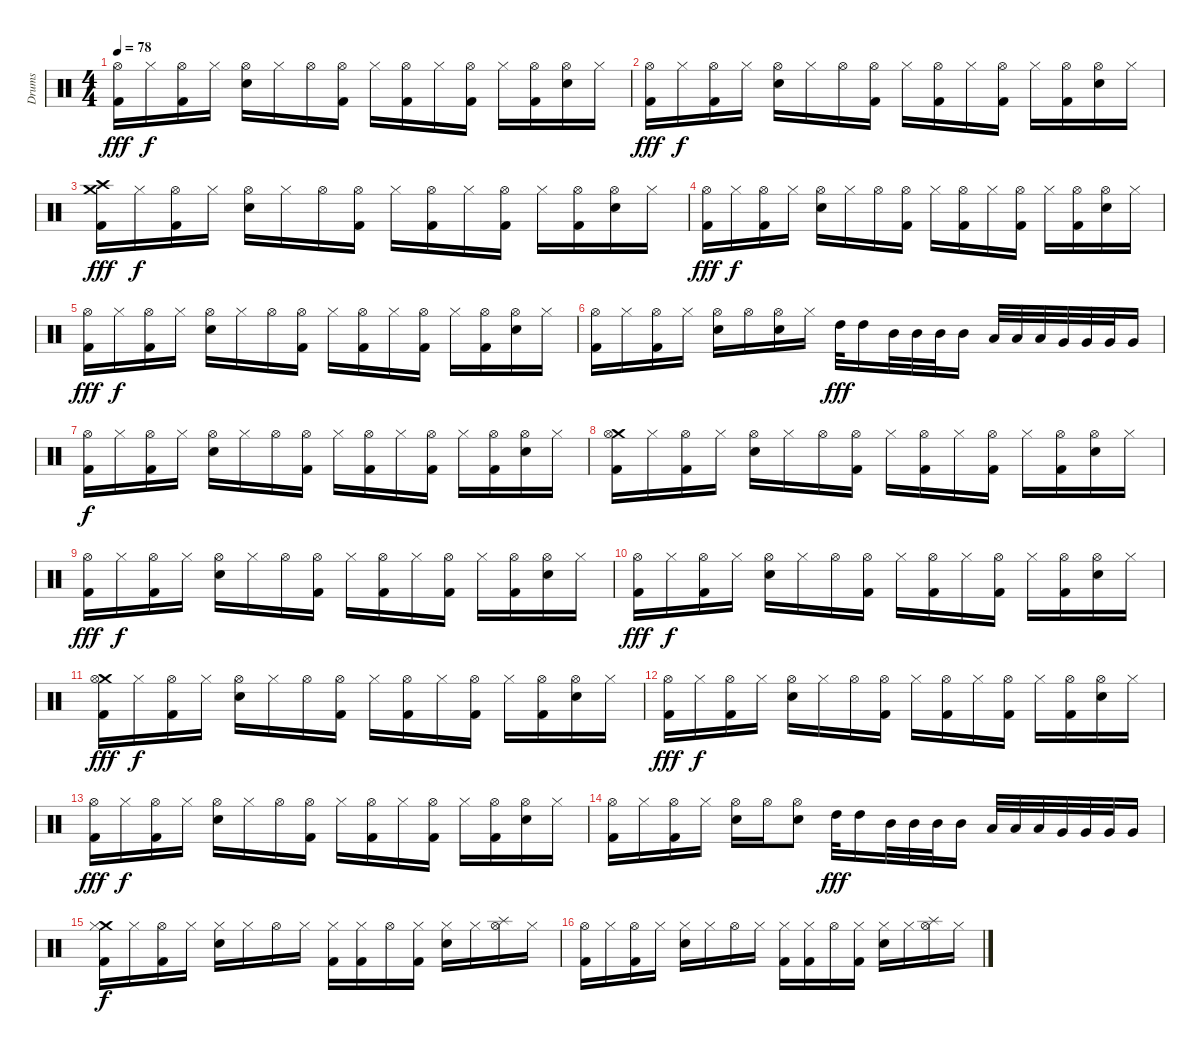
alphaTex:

\track ("Drums" "Drums") {instrument percussion}
\staff {score}
\articulation defaults
\ts (4 4)
\tempo 78
\clef neutral
\ks c
("Hi-Hat (open)" "Kick (hit) 2").16{dy fff} "Hi-Hat (closed)".16{dy f} ("Hi-Hat (open)" "Kick (hit) 2").16 "Hi-Hat (closed)".16 ("Hi-Hat (open)" "Snare (hit) 2").16 "Hi-Hat (closed)".16 "Hi-Hat (open)".16 ("Hi-Hat (open)" "Kick (hit) 2").16 "Hi-Hat (closed)".16 ("Hi-Hat (open)" "Kick (hit) 2").16 "Hi-Hat (closed)".16 ("Hi-Hat (open)" "Kick (hit) 2").16 "Hi-Hat (closed)".16 ("Hi-Hat (open)" "Kick (hit) 2").16 ("Hi-Hat (open)" "Snare (hit) 2").16 "Hi-Hat (closed)".16 |
("Hi-Hat (open)" "Kick (hit) 2").16{dy fff} "Hi-Hat (closed)".16{dy f} ("Hi-Hat (open)" "Kick (hit) 2").16 "Hi-Hat (closed)".16 ("Hi-Hat (open)" "Snare (hit) 2").16 "Hi-Hat (closed)".16 "Hi-Hat (open)".16 ("Hi-Hat (open)" "Kick (hit) 2").16 "Hi-Hat (closed)".16 ("Hi-Hat (open)" "Kick (hit) 2").16 "Hi-Hat (closed)".16 ("Hi-Hat (open)" "Kick (hit) 2").16 "Hi-Hat (closed)".16 ("Hi-Hat (open)" "Kick (hit) 2").16 ("Hi-Hat (open)" "Snare (hit) 2").16 "Hi-Hat (closed)".16 |
("Crash medium (hit)" "Crash high (hit)" "Kick (hit) 2").16{dy fff} "Hi-Hat (closed)".16{dy f} ("Hi-Hat (open)" "Kick (hit) 2").16 "Hi-Hat (closed)".16 ("Hi-Hat (open)" "Snare (hit) 2").16 "Hi-Hat (closed)".16 "Hi-Hat (open)".16 ("Hi-Hat (open)" "Kick (hit) 2").16 "Hi-Hat (closed)".16 ("Hi-Hat (open)" "Kick (hit) 2").16 "Hi-Hat (closed)".16 ("Hi-Hat (open)" "Kick (hit) 2").16 "Hi-Hat (closed)".16 ("Hi-Hat (open)" "Kick (hit) 2").16 ("Hi-Hat (open)" "Snare (hit) 2").16 "Hi-Hat (closed)".16 |
("Hi-Hat (open)" "Kick (hit) 2").16{dy fff} "Hi-Hat (closed)".16{dy f} ("Hi-Hat (open)" "Kick (hit) 2").16 "Hi-Hat (closed)".16 ("Hi-Hat (open)" "Snare (hit) 2").16 "Hi-Hat (closed)".16 "Hi-Hat (open)".16 ("Hi-Hat (open)" "Kick (hit) 2").16 "Hi-Hat (closed)".16 ("Hi-Hat (open)" "Kick (hit) 2").16 "Hi-Hat (closed)".16 ("Hi-Hat (open)" "Kick (hit) 2").16 "Hi-Hat (closed)".16 ("Hi-Hat (open)" "Kick (hit) 2").16 ("Hi-Hat (open)" "Snare (hit) 2").16 "Hi-Hat (closed)".16 |
("Hi-Hat (open)" "Kick (hit) 2").16{dy fff} "Hi-Hat (closed)".16{dy f} ("Hi-Hat (open)" "Kick (hit) 2").16 "Hi-Hat (closed)".16 ("Hi-Hat (open)" "Snare (hit) 2").16 "Hi-Hat (closed)".16 "Hi-Hat (open)".16 ("Hi-Hat (open)" "Kick (hit) 2").16 "Hi-Hat (closed)".16 ("Hi-Hat (open)" "Kick (hit) 2").16 "Hi-Hat (closed)".16 ("Hi-Hat (open)" "Kick (hit) 2").16 "Hi-Hat (closed)".16 ("Hi-Hat (open)" "Kick (hit) 2").16 ("Hi-Hat (open)" "Snare (hit) 2").16 "Hi-Hat (closed)".16 |
("Hi-Hat (open)" "Kick (hit) 2").16 "Hi-Hat (closed)".16 ("Hi-Hat (open)" "Kick (hit) 2").16 "Hi-Hat (closed)".16 ("Hi-Hat (open)" "Snare (hit) 2").16 "Hi-Hat (open)".16 ("Hi-Hat (open)" "Snare (hit) 2").16 "Hi-Hat (closed)".16 "High Tom (hit)".32{dy fff} "High Tom (hit)".16 "Mid Tom (hit)".32 "Mid Tom (hit)".32 "Mid Tom (hit)".32 "Mid Tom (hit)".16 "Low Tom (hit)".32 "Low Tom (hit)".32 "Low Tom (hit)".32 "Very Low Tom (hit)".32 "Very Low Tom (hit)".32 "Very Low Tom (hit)".32 "Very Low Tom (hit)".16 |
("Hi-Hat (open)" "Kick (hit) 2").16{dy f} "Hi-Hat (closed)".16 ("Hi-Hat (open)" "Kick (hit) 2").16 "Hi-Hat (closed)".16 ("Hi-Hat (open)" "Snare (hit) 2").16 "Hi-Hat (closed)".16 "Hi-Hat (open)".16 ("Hi-Hat (open)" "Kick (hit) 2").16 "Hi-Hat (closed)".16 ("Hi-Hat (open)" "Kick (hit) 2").16 "Hi-Hat (closed)".16 ("Hi-Hat (open)" "Kick (hit) 2").16 "Hi-Hat (closed)".16 ("Hi-Hat (open)" "Kick (hit) 2").16 ("Hi-Hat (open)" "Snare (hit) 2").16 "Hi-Hat (closed)".16 |
("Crash medium (hit)" "Hi-Hat (open)" "Kick (hit) 2").16 "Hi-Hat (closed)".16 ("Hi-Hat (open)" "Kick (hit) 2").16 "Hi-Hat (closed)".16 ("Hi-Hat (open)" "Snare (hit) 2").16 "Hi-Hat (closed)".16 "Hi-Hat (open)".16 ("Hi-Hat (open)" "Kick (hit) 2").16 "Hi-Hat (closed)".16 ("Hi-Hat (open)" "Kick (hit) 2").16 "Hi-Hat (closed)".16 ("Hi-Hat (open)" "Kick (hit) 2").16 "Hi-Hat (closed)".16 ("Hi-Hat (open)" "Kick (hit) 2").16 ("Hi-Hat (open)" "Snare (hit) 2").16 "Hi-Hat (closed)".16 |
("Hi-Hat (open)" "Kick (hit) 2").16{dy fff} "Hi-Hat (closed)".16{dy f} ("Hi-Hat (open)" "Kick (hit) 2").16 "Hi-Hat (closed)".16 ("Hi-Hat (open)" "Snare (hit) 2").16 "Hi-Hat (closed)".16 "Hi-Hat (open)".16 ("Hi-Hat (open)" "Kick (hit) 2").16 "Hi-Hat (closed)".16 ("Hi-Hat (open)" "Kick (hit) 2").16 "Hi-Hat (closed)".16 ("Hi-Hat (open)" "Kick (hit) 2").16 "Hi-Hat (closed)".16 ("Hi-Hat (open)" "Kick (hit) 2").16 ("Hi-Hat (open)" "Snare (hit) 2").16 "Hi-Hat (closed)".16 |
("Hi-Hat (open)" "Kick (hit) 2").16{dy fff} "Hi-Hat (closed)".16{dy f} ("Hi-Hat (open)" "Kick (hit) 2").16 "Hi-Hat (closed)".16 ("Hi-Hat (open)" "Snare (hit) 2").16 "Hi-Hat (closed)".16 "Hi-Hat (open)".16 ("Hi-Hat (open)" "Kick (hit) 2").16 "Hi-Hat (closed)".16 ("Hi-Hat (open)" "Kick (hit) 2").16 "Hi-Hat (closed)".16 ("Hi-Hat (open)" "Kick (hit) 2").16 "Hi-Hat (closed)".16 ("Hi-Hat (open)" "Kick (hit) 2").16 ("Hi-Hat (open)" "Snare (hit) 2").16 "Hi-Hat (closed)".16 |
("Crash medium (hit)" "Hi-Hat (open)" "Kick (hit) 2").16{dy fff} "Hi-Hat (closed)".16{dy f} ("Hi-Hat (open)" "Kick (hit) 2").16 "Hi-Hat (closed)".16 ("Hi-Hat (open)" "Snare (hit) 2").16 "Hi-Hat (closed)".16 "Hi-Hat (open)".16 ("Hi-Hat (open)" "Kick (hit) 2").16 "Hi-Hat (closed)".16 ("Hi-Hat (open)" "Kick (hit) 2").16 "Hi-Hat (closed)".16 ("Hi-Hat (open)" "Kick (hit) 2").16 "Hi-Hat (closed)".16 ("Hi-Hat (open)" "Kick (hit) 2").16 ("Hi-Hat (open)" "Snare (hit) 2").16 "Hi-Hat (closed)".16 |
("Hi-Hat (open)" "Kick (hit) 2").16{dy fff} "Hi-Hat (closed)".16{dy f} ("Hi-Hat (open)" "Kick (hit) 2").16 "Hi-Hat (closed)".16 ("Hi-Hat (open)" "Snare (hit) 2").16 "Hi-Hat (closed)".16 "Hi-Hat (open)".16 ("Hi-Hat (open)" "Kick (hit) 2").16 "Hi-Hat (closed)".16 ("Hi-Hat (open)" "Kick (hit) 2").16 "Hi-Hat (closed)".16 ("Hi-Hat (open)" "Kick (hit) 2").16 "Hi-Hat (closed)".16 ("Hi-Hat (open)" "Kick (hit) 2").16 ("Hi-Hat (open)" "Snare (hit) 2").16 "Hi-Hat (closed)".16 |
("Hi-Hat (open)" "Kick (hit) 2").16{dy fff} "Hi-Hat (closed)".16{dy f} ("Hi-Hat (open)" "Kick (hit) 2").16 "Hi-Hat (closed)".16 ("Hi-Hat (open)" "Snare (hit) 2").16 "Hi-Hat (closed)".16 "Hi-Hat (open)".16 ("Hi-Hat (open)" "Kick (hit) 2").16 "Hi-Hat (closed)".16 ("Hi-Hat (open)" "Kick (hit) 2").16 "Hi-Hat (closed)".16 ("Hi-Hat (open)" "Kick (hit) 2").16 "Hi-Hat (closed)".16 ("Hi-Hat (open)" "Kick (hit) 2").16 ("Hi-Hat (open)" "Snare (hit) 2").16 "Hi-Hat (closed)".16 |
("Hi-Hat (open)" "Kick (hit) 2").16 "Hi-Hat (closed)".16 ("Hi-Hat (open)" "Kick (hit) 2").16 "Hi-Hat (closed)".16 ("Hi-Hat (open)" "Snare (hit) 2").16 "Hi-Hat (open)".16 ("Hi-Hat (open)" "Snare (hit) 2").8 "High Tom (hit)".32{dy fff} "High Tom (hit)".16 "Mid Tom (hit)".32 "Mid Tom (hit)".32 "Mid Tom (hit)".32 "Mid Tom (hit)".16 "Low Tom (hit)".32 "Low Tom (hit)".32 "Low Tom (hit)".32 "Very Low Tom (hit)".32 "Very Low Tom (hit)".32 "Very Low Tom (hit)".32 "Very Low Tom (hit)".16 |
("Crash medium (hit)" "Hi-Hat (closed)" "Kick (hit) 2").16{dy f} "Hi-Hat (closed)".16 ("Hi-Hat (open)" "Kick (hit) 2").16 "Hi-Hat (closed)".16 ("Hi-Hat (closed)" "Snare (hit) 2").16 "Hi-Hat (closed)".16 "Hi-Hat (open)".16 "Hi-Hat (closed)".16 ("Hi-Hat (closed)" "Kick (hit) 2").16 ("Hi-Hat (closed)" "Kick (hit) 2").16 "Hi-Hat (open)".16 ("Hi-Hat (closed)" "Kick (hit) 2").16 ("Hi-Hat (closed)" "Snare (hit) 2").16 "Hi-Hat (closed)".16 ("Splash (hit)" "Hi-Hat (open)").16 "Hi-Hat (closed)".16 |
("Hi-Hat (open)" "Kick (hit) 2").16 "Hi-Hat (closed)".16 ("Hi-Hat (open)" "Kick (hit) 2").16 "Hi-Hat (closed)".16 ("Hi-Hat (closed)" "Snare (hit) 2").16 "Hi-Hat (closed)".16 "Hi-Hat (open)".16 "Hi-Hat (closed)".16 ("Hi-Hat (closed)" "Kick (hit) 2").16 ("Hi-Hat (closed)" "Kick (hit) 2").16 "Hi-Hat (open)".16 ("Hi-Hat (closed)" "Kick (hit) 2").16 ("Hi-Hat (closed)" "Snare (hit) 2").16 "Hi-Hat (closed)".16 ("Splash (hit)" "Hi-Hat (open)").16 "Hi-Hat (closed)".16
